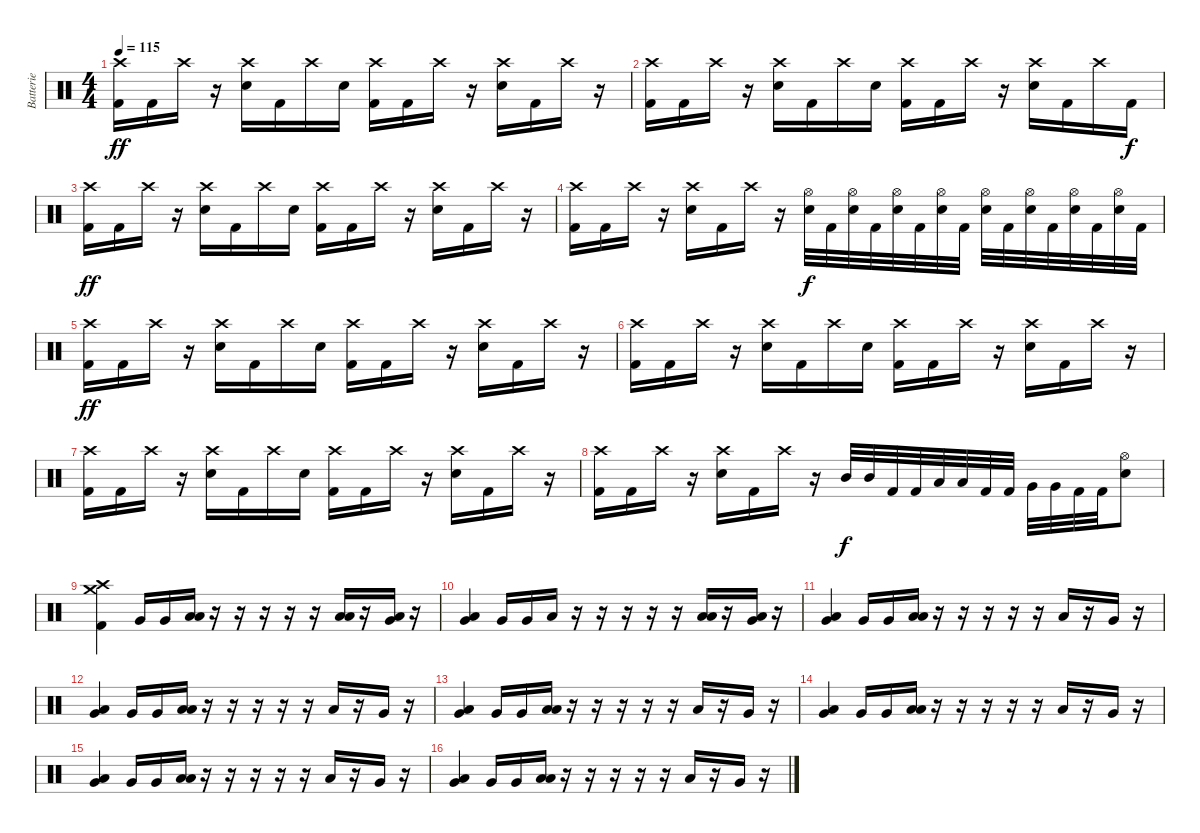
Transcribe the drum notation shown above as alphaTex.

\track ("Batterie" "Batterie") {instrument percussion}
\staff {score}
\articulation defaults
\ts (4 4)
\tempo 115
\clef neutral
\ks c
("Kick (hit) 2" "Crash high (hit)").16{dy ff} "Kick (hit) 2".16 "Crash high (hit)".16 r.16 ("Electric Snare (hit)" "Crash high (hit)").16 "Kick (hit) 2".16 "Crash high (hit)".16 "Electric Snare (hit)".16 ("Kick (hit) 2" "Crash high (hit)").16 "Kick (hit) 2".16 "Crash high (hit)".16 r.16 ("Electric Snare (hit)" "Crash high (hit)").16 "Kick (hit) 2".16 "Crash high (hit)".16 r.16 |
("Kick (hit) 2" "Crash high (hit)").16 "Kick (hit) 2".16 "Crash high (hit)".16 r.16 ("Electric Snare (hit)" "Crash high (hit)").16 "Kick (hit) 2".16 "Crash high (hit)".16 "Electric Snare (hit)".16 ("Kick (hit) 2" "Crash high (hit)").16 "Kick (hit) 2".16 "Crash high (hit)".16 r.16 ("Electric Snare (hit)" "Crash high (hit)").16 "Kick (hit) 2".16 "Crash high (hit)".16 "Kick (hit) 2".16{dy f} |
("Kick (hit) 2" "Crash high (hit)").16{dy ff} "Kick (hit) 2".16 "Crash high (hit)".16 r.16 ("Electric Snare (hit)" "Crash high (hit)").16 "Kick (hit) 2".16 "Crash high (hit)".16 "Electric Snare (hit)".16 ("Kick (hit) 2" "Crash high (hit)").16 "Kick (hit) 2".16 "Crash high (hit)".16 r.16 ("Electric Snare (hit)" "Crash high (hit)").16 "Kick (hit) 2".16 "Crash high (hit)".16 r.16 |
("Kick (hit) 2" "Crash high (hit)").16 "Kick (hit) 2".16 "Crash high (hit)".16 r.16 ("Electric Snare (hit)" "Crash high (hit)").16 "Kick (hit) 2".16 "Crash high (hit)".16 r.16 ("Electric Snare (hit)" "Hi-Hat (open)").32{dy f} "Kick (hit) 2".32 ("Electric Snare (hit)" "Hi-Hat (open)").32 "Kick (hit) 2".32 ("Electric Snare (hit)" "Hi-Hat (open)").32 "Kick (hit) 2".32 ("Electric Snare (hit)" "Hi-Hat (open)").32 "Kick (hit) 2".32 ("Electric Snare (hit)" "Hi-Hat (open)").32 "Kick (hit) 2".32 ("Electric Snare (hit)" "Hi-Hat (open)").32 "Kick (hit) 2".32 ("Electric Snare (hit)" "Hi-Hat (open)").32 "Kick (hit) 2".32 ("Electric Snare (hit)" "Hi-Hat (open)").32 "Kick (hit) 2".32 |
("Kick (hit) 2" "Crash high (hit)").16{dy ff} "Kick (hit) 2".16 "Crash high (hit)".16 r.16 ("Electric Snare (hit)" "Crash high (hit)").16 "Kick (hit) 2".16 "Crash high (hit)".16 "Electric Snare (hit)".16 ("Kick (hit) 2" "Crash high (hit)").16 "Kick (hit) 2".16 "Crash high (hit)".16 r.16 ("Electric Snare (hit)" "Crash high (hit)").16 "Kick (hit) 2".16 "Crash high (hit)".16 r.16 |
("Kick (hit) 2" "Crash high (hit)").16 "Kick (hit) 2".16 "Crash high (hit)".16 r.16 ("Electric Snare (hit)" "Crash high (hit)").16 "Kick (hit) 2".16 "Crash high (hit)".16 "Electric Snare (hit)".16 ("Kick (hit) 2" "Crash high (hit)").16 "Kick (hit) 2".16 "Crash high (hit)".16 r.16 ("Electric Snare (hit)" "Crash high (hit)").16 "Kick (hit) 2".16 "Crash high (hit)".16 r.16 |
("Kick (hit) 2" "Crash high (hit)").16 "Kick (hit) 2".16 "Crash high (hit)".16 r.16 ("Electric Snare (hit)" "Crash high (hit)").16 "Kick (hit) 2".16 "Crash high (hit)".16 "Electric Snare (hit)".16 ("Kick (hit) 2" "Crash high (hit)").16 "Kick (hit) 2".16 "Crash high (hit)".16 r.16 ("Electric Snare (hit)" "Crash high (hit)").16 "Kick (hit) 2".16 "Crash high (hit)".16 r.16 |
("Kick (hit) 2" "Crash high (hit)").16 "Kick (hit) 2".16 "Crash high (hit)".16 r.16 ("Electric Snare (hit)" "Crash high (hit)").16 "Kick (hit) 2".16 "Crash high (hit)".16 r.16 "Mid Tom (hit)".32{dy f} "Mid Tom (hit)".32 "Kick (hit) 2".32 "Kick (hit) 2".32 "Low Tom (hit)".32 "Low Tom (hit)".32 "Kick (hit) 2".32 "Kick (hit) 2".32 "Very Low Tom (hit)".32 "Very Low Tom (hit)".32 "Kick (hit) 2".32 "Kick (hit) 2".32 ("Electric Snare (hit)" "Hi-Hat (open)").8 |
("Kick (hit) 2" "Crash medium (hit)" "Crash high (hit)").4 "Very Low Tom (hit)".16 "Very Low Tom (hit)".16 ("Low Floor Tom (hit)" "Low Tom (hit)").16 r.16 r.16 r.16 r.16 r.16 ("Low Floor Tom (hit)" "Low Tom (hit)").16 r.16 ("Low Floor Tom (hit)" "Very Low Tom (hit)").16 r.16 |
("Low Floor Tom (hit)" "Very Low Tom (hit)").4 "Very Low Tom (hit)".16 "Very Low Tom (hit)".16 "Low Floor Tom (hit)".16 r.16 r.16 r.16 r.16 r.16 ("Low Floor Tom (hit)" "Low Tom (hit)").16 r.16 ("Low Floor Tom (hit)" "Very Low Tom (hit)").16 r.16 |
("Low Floor Tom (hit)" "Very Low Tom (hit)").4 "Very Low Tom (hit)".16 "Very Low Tom (hit)".16 ("Low Floor Tom (hit)" "Low Tom (hit)").16 r.16 r.16 r.16 r.16 r.16 "Low Tom (hit)".16 r.16 "Very Low Tom (hit)".16 r.16 |
("Low Floor Tom (hit)" "Very Low Tom (hit)").4 "Very Low Tom (hit)".16 "Very Low Tom (hit)".16 ("Low Floor Tom (hit)" "Low Tom (hit)").16 r.16 r.16 r.16 r.16 r.16 "Low Tom (hit)".16 r.16 "Very Low Tom (hit)".16 r.16 |
("Low Floor Tom (hit)" "Very Low Tom (hit)").4 "Very Low Tom (hit)".16 "Very Low Tom (hit)".16 ("Low Floor Tom (hit)" "Low Tom (hit)").16 r.16 r.16 r.16 r.16 r.16 "Low Tom (hit)".16 r.16 "Very Low Tom (hit)".16 r.16 |
("Low Floor Tom (hit)" "Very Low Tom (hit)").4 "Very Low Tom (hit)".16 "Very Low Tom (hit)".16 ("Low Floor Tom (hit)" "Low Tom (hit)").16 r.16 r.16 r.16 r.16 r.16 "Low Tom (hit)".16 r.16 "Very Low Tom (hit)".16 r.16 |
("Low Floor Tom (hit)" "Very Low Tom (hit)").4 "Very Low Tom (hit)".16 "Very Low Tom (hit)".16 ("Low Floor Tom (hit)" "Low Tom (hit)").16 r.16 r.16 r.16 r.16 r.16 "Low Tom (hit)".16 r.16 "Very Low Tom (hit)".16 r.16 |
("Low Floor Tom (hit)" "Very Low Tom (hit)").4 "Very Low Tom (hit)".16 "Very Low Tom (hit)".16 ("Low Floor Tom (hit)" "Low Tom (hit)").16 r.16 r.16 r.16 r.16 r.16 "Low Tom (hit)".16 r.16 "Very Low Tom (hit)".16 r.16
